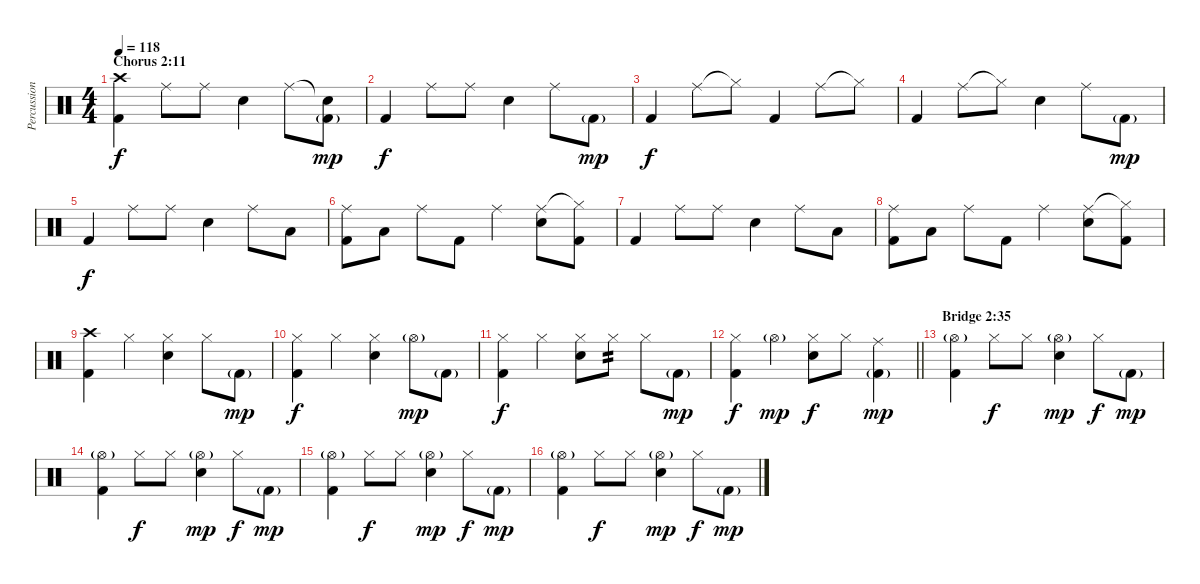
\track ("Percussion" "Percussion") {instrument percussion}
\staff {score}
\articulation defaults
\ts (4 4)
\section ("" "Chorus 2:11")
\tempo 118
\clef neutral
\ks c
("Crash high (hit)" "Kick (hit) 2").4{dy f} "Ride (middle)".8 "Ride (middle)".8 "Electric Snare (hit)".4 "Ride (middle)".8 ("Snare (hit)"{t} "Kick (hit) 2"{g}).8{dy mp} |
"Kick (hit) 2".4{dy f} "Ride (middle)".8 "Ride (middle)".8 "Electric Snare (hit)".4 "Ride (middle)".8 "Kick (hit) 2"{g}.8{dy mp} |
"Kick (hit) 2".4{dy f} "Ride (middle)".8 "Hi-Hat (closed)"{t}.8 "Kick (hit) 2".4 "Ride (middle)".8 "Hi-Hat (closed)"{t}.8 |
"Kick (hit) 2".4 "Ride (middle)".8 "Hi-Hat (closed)"{t}.8 "Electric Snare (hit)".4 "Ride (middle)".8 "Kick (hit) 2"{g}.8{dy mp} |
"Kick (hit) 2".4{dy f} "Ride (middle)".8 "Ride (middle)".8 "Electric Snare (hit)".4 "Ride (middle)".8 "Low Floor Tom (hit)".8 |
("Ride (middle)" "Kick (hit) 2").8 "Low Floor Tom (hit)".8 "Ride (middle)".8 "Kick (hit) 2".8 "Ride (middle)".4 ("Ride (middle)" "Electric Snare (hit)").8 ("Hi-Hat (closed)"{t} "Kick (hit) 2").8 |
"Kick (hit) 2".4 "Ride (middle)".8 "Ride (middle)".8 "Electric Snare (hit)".4 "Ride (middle)".8 "Low Floor Tom (hit)".8 |
("Ride (middle)" "Kick (hit) 2").8 "Low Floor Tom (hit)".8 "Ride (middle)".8 "Kick (hit) 2".8 "Ride (middle)".4 ("Ride (middle)" "Electric Snare (hit)").8 ("Hi-Hat (closed)"{t} "Kick (hit) 2").8 |
("Crash high (hit)" "Kick (hit) 2").4 "Hi-Hat (closed)".4 ("Hi-Hat (closed)" "Electric Snare (hit)").4 "Hi-Hat (closed)".8 "Kick (hit) 2"{g}.8{dy mp} |
("Hi-Hat (closed)" "Kick (hit) 2").4{dy f} "Hi-Hat (closed)".4 ("Hi-Hat (closed)" "Electric Snare (hit)").4 "Hi-Hat (open)"{g}.8{dy mp} "Kick (hit) 2"{g}.8 |
("Hi-Hat (closed)" "Kick (hit) 2").4{dy f} "Hi-Hat (closed)".4 ("Hi-Hat (closed)" "Electric Snare (hit)").8 "Hi-Hat (closed)".8{tp 2} "Hi-Hat (closed)".8 "Kick (hit) 2"{g}.8{dy mp} |
\barLineRight lightlight
("Hi-Hat (closed)" "Kick (hit) 2").4{dy f} "Hi-Hat (open)"{g}.4{dy mp} ("Hi-Hat (closed)" "Electric Snare (hit)").8{dy f} "Hi-Hat (closed)".8 ("Ride (middle)" "Kick (hit) 2"{g}).4{dy mp} |
\section ("" "Bridge 2:35")
("Hi-Hat (open)"{g} "Kick (hit) 2").4 "Hi-Hat (closed)".8{dy f} "Hi-Hat (closed)".8 ("Hi-Hat (open)"{g} "Electric Snare (hit)").4{dy mp} "Hi-Hat (closed)".8{dy f} "Kick (hit) 2"{g}.8{dy mp} |
("Hi-Hat (open)"{g} "Kick (hit) 2").4 "Hi-Hat (closed)".8{dy f} "Hi-Hat (closed)".8 ("Hi-Hat (open)"{g} "Electric Snare (hit)").4{dy mp} "Hi-Hat (closed)".8{dy f} "Kick (hit) 2"{g}.8{dy mp} |
("Hi-Hat (open)"{g} "Kick (hit) 2").4 "Hi-Hat (closed)".8{dy f} "Hi-Hat (closed)".8 ("Hi-Hat (open)"{g} "Electric Snare (hit)").4{dy mp} "Hi-Hat (closed)".8{dy f} "Kick (hit) 2"{g}.8{dy mp} |
("Hi-Hat (open)"{g} "Kick (hit) 2").4 "Hi-Hat (closed)".8{dy f} "Hi-Hat (closed)".8 ("Hi-Hat (open)"{g} "Electric Snare (hit)").4{dy mp} "Hi-Hat (closed)".8{dy f} "Kick (hit) 2"{g}.8{dy mp}
